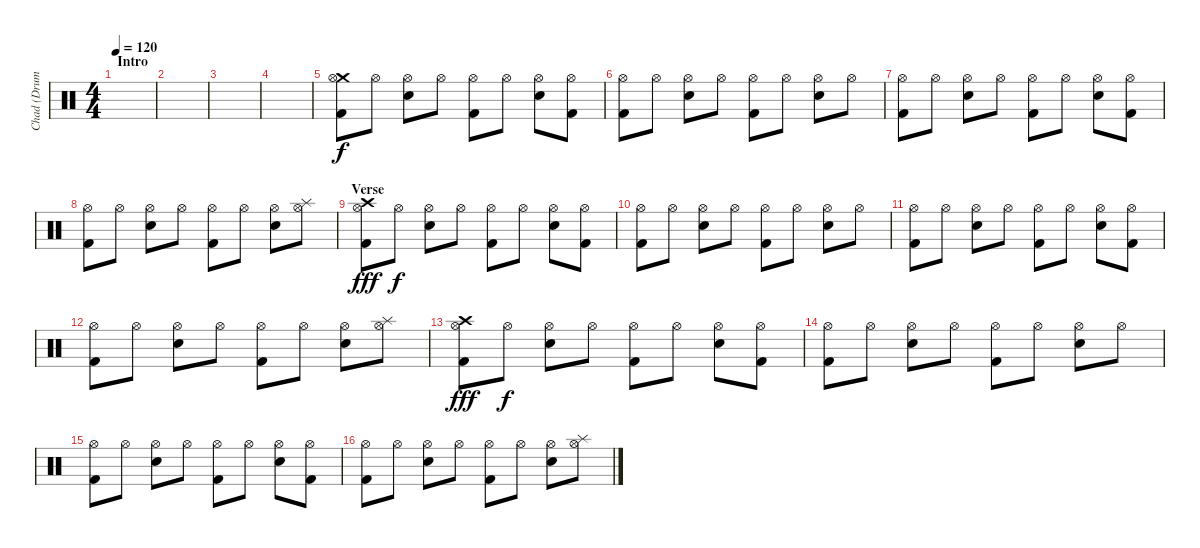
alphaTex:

\track ("Chad (Drums)" "Chad (Drum") {instrument percussion}
\staff {score}
\articulation defaults
\ts (4 4)
\section ("" "Intro")
\tempo 120
\clef neutral
\ks c
|
|
|
|
("Crash medium (hit)" "Hi-Hat (open)" "Kick (hit) 2").8 "Hi-Hat (open)".8{dy f} ("Hi-Hat (open)" "Snare (hit) 2").8 "Hi-Hat (open)".8 ("Hi-Hat (open)" "Kick (hit) 2").8 "Hi-Hat (open)".8 ("Hi-Hat (open)" "Snare (hit) 2").8 ("Hi-Hat (open)" "Kick (hit) 2").8 |
("Hi-Hat (open)" "Kick (hit) 2").8 "Hi-Hat (open)".8 ("Hi-Hat (open)" "Snare (hit) 2").8 "Hi-Hat (open)".8 ("Hi-Hat (open)" "Kick (hit) 2").8 "Hi-Hat (open)".8 ("Hi-Hat (open)" "Snare (hit) 2").8 "Hi-Hat (open)".8 |
("Hi-Hat (open)" "Kick (hit) 2").8 "Hi-Hat (open)".8 ("Hi-Hat (open)" "Snare (hit) 2").8 "Hi-Hat (open)".8 ("Hi-Hat (open)" "Kick (hit) 2").8 "Hi-Hat (open)".8 ("Hi-Hat (open)" "Snare (hit) 2").8 ("Hi-Hat (open)" "Kick (hit) 2").8 |
("Hi-Hat (open)" "Kick (hit) 2").8 "Hi-Hat (open)".8 ("Hi-Hat (open)" "Snare (hit) 2").8 "Hi-Hat (open)".8 ("Hi-Hat (open)" "Kick (hit) 2").8 "Hi-Hat (open)".8 ("Hi-Hat (open)" "Snare (hit) 2").8 ("Splash (hit)" "Hi-Hat (open)").8 |
\section ("" "Verse")
("Crash high (hit)" "Hi-Hat (open)" "Kick (hit) 2").8{dy fff} "Hi-Hat (open)".8{dy f} ("Hi-Hat (open)" "Snare (hit) 2").8 "Hi-Hat (open)".8 ("Hi-Hat (open)" "Kick (hit) 2").8 "Hi-Hat (open)".8 ("Hi-Hat (open)" "Snare (hit) 2").8 ("Hi-Hat (open)" "Kick (hit) 2").8 |
("Hi-Hat (open)" "Kick (hit) 2").8 "Hi-Hat (open)".8 ("Hi-Hat (open)" "Snare (hit) 2").8 "Hi-Hat (open)".8 ("Hi-Hat (open)" "Kick (hit) 2").8 "Hi-Hat (open)".8 ("Hi-Hat (open)" "Snare (hit) 2").8 "Hi-Hat (open)".8 |
("Hi-Hat (open)" "Kick (hit) 2").8 "Hi-Hat (open)".8 ("Hi-Hat (open)" "Snare (hit) 2").8 "Hi-Hat (open)".8 ("Hi-Hat (open)" "Kick (hit) 2").8 "Hi-Hat (open)".8 ("Hi-Hat (open)" "Snare (hit) 2").8 ("Hi-Hat (open)" "Kick (hit) 2").8 |
("Hi-Hat (open)" "Kick (hit) 2").8 "Hi-Hat (open)".8 ("Hi-Hat (open)" "Snare (hit) 2").8 "Hi-Hat (open)".8 ("Hi-Hat (open)" "Kick (hit) 2").8 "Hi-Hat (open)".8 ("Hi-Hat (open)" "Snare (hit) 2").8 ("Splash (hit)" "Hi-Hat (open)").8 |
("Crash high (hit)" "Hi-Hat (open)" "Kick (hit) 2").8{dy fff} "Hi-Hat (open)".8{dy f} ("Hi-Hat (open)" "Snare (hit) 2").8 "Hi-Hat (open)".8 ("Hi-Hat (open)" "Kick (hit) 2").8 "Hi-Hat (open)".8 ("Hi-Hat (open)" "Snare (hit) 2").8 ("Hi-Hat (open)" "Kick (hit) 2").8 |
("Hi-Hat (open)" "Kick (hit) 2").8 "Hi-Hat (open)".8 ("Hi-Hat (open)" "Snare (hit) 2").8 "Hi-Hat (open)".8 ("Hi-Hat (open)" "Kick (hit) 2").8 "Hi-Hat (open)".8 ("Hi-Hat (open)" "Snare (hit) 2").8 "Hi-Hat (open)".8 |
("Hi-Hat (open)" "Kick (hit) 2").8 "Hi-Hat (open)".8 ("Hi-Hat (open)" "Snare (hit) 2").8 "Hi-Hat (open)".8 ("Hi-Hat (open)" "Kick (hit) 2").8 "Hi-Hat (open)".8 ("Hi-Hat (open)" "Snare (hit) 2").8 ("Hi-Hat (open)" "Kick (hit) 2").8 |
("Hi-Hat (open)" "Kick (hit) 2").8 "Hi-Hat (open)".8 ("Hi-Hat (open)" "Snare (hit) 2").8 "Hi-Hat (open)".8 ("Hi-Hat (open)" "Kick (hit) 2").8 "Hi-Hat (open)".8 ("Hi-Hat (open)" "Snare (hit) 2").8 ("Splash (hit)" "Hi-Hat (open)").8
